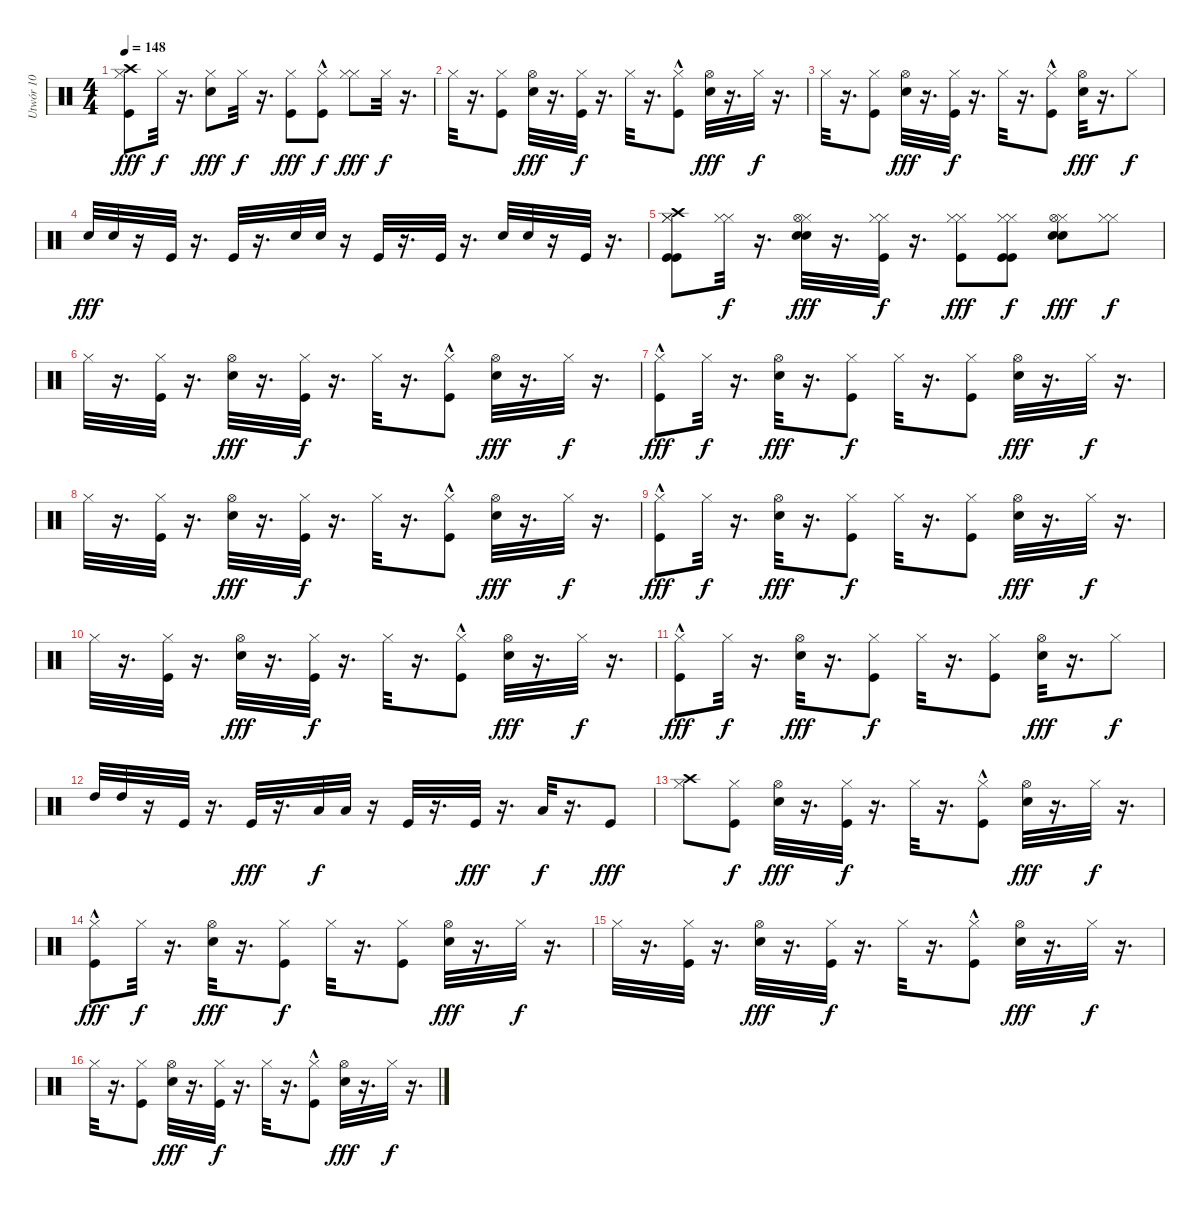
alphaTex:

\track ("Utwór 10" "Utwór 10") {instrument percussion}
\staff {score}
\articulation defaults
\ts (4 4)
\tempo 148
\clef neutral
\ks c
("Crash high (hit)" "Hi-Hat (closed)" "Kick (hit)").8{dy fff} "Hi-Hat (closed)".32{dy f} r.16{d} ("Hi-Hat (closed)" "Electric Snare (hit)").8{dy fff} "Hi-Hat (closed)".32{dy f} r.16{d} ("Hi-Hat (closed)" "Kick (hit)").8{dy fff} ("Hi-Hat (closed)" "Kick (hit)"{hac}).8{dy f} ("Hi-Hat (closed)" "Hi-Hat (closed)").8{dy fff} "Hi-Hat (closed)".32{dy f} r.16{d} |
"Hi-Hat (closed)".32 r.16{d} ("Hi-Hat (closed)" "Kick (hit)").8 ("Hi-Hat (open)" "Electric Snare (hit)").32{dy fff} r.16{d} ("Hi-Hat (closed)" "Kick (hit)").32{dy f} r.16{d} "Hi-Hat (closed)".32 r.16{d} ("Hi-Hat (closed)" "Kick (hit)"{hac}).8 ("Hi-Hat (open)" "Electric Snare (hit)").32{dy fff} r.16{d} "Hi-Hat (closed)".32{dy f} r.16{d} |
"Hi-Hat (closed)".32 r.16{d} ("Hi-Hat (closed)" "Kick (hit)").8 ("Hi-Hat (open)" "Electric Snare (hit)").32{dy fff} r.16{d} ("Hi-Hat (closed)" "Kick (hit)").32{dy f} r.16{d} "Hi-Hat (closed)".32 r.16{d} ("Hi-Hat (closed)" "Kick (hit)"{hac}).8 ("Hi-Hat (open)" "Electric Snare (hit)").32{dy fff} r.16{d} "Hi-Hat (closed)".8{dy f} |
"Electric Snare (hit)".32{dy fff} "Electric Snare (hit)".32 r.16 "Kick (hit)".32 r.16{d} "Kick (hit)".32 r.16{d} "Electric Snare (hit)".32 "Electric Snare (hit)".32 r.16 "Kick (hit)".32 r.16{d} "Kick (hit)".32 r.16{d} "Electric Snare (hit)".32 "Electric Snare (hit)".32 r.16 "Kick (hit)".32 r.16{d} |
("Crash high (hit)" "Hi-Hat (closed)" "Kick (hit)" "Hi-Hat (closed)" "Kick (hit)").8 ("Hi-Hat (closed)" "Hi-Hat (closed)").32{dy f} r.16{d} ("Hi-Hat (closed)" "Electric Snare (hit)" "Hi-Hat (open)" "Electric Snare (hit)").32{dy fff} r.16{d} ("Hi-Hat (closed)" "Hi-Hat (closed)" "Kick (hit)").32{dy f} r.16{d} ("Hi-Hat (closed)" "Hi-Hat (closed)" "Kick (hit)").8{dy fff} ("Hi-Hat (closed)" "Kick (hit)" "Hi-Hat (closed)" "Kick (hit)").8{dy f} ("Hi-Hat (closed)" "Electric Snare (hit)" "Hi-Hat (open)" "Electric Snare (hit)").8{dy fff} ("Hi-Hat (closed)" "Hi-Hat (closed)").8{dy f} |
"Hi-Hat (closed)".32 r.16{d} ("Hi-Hat (closed)" "Kick (hit)").32 r.16{d} ("Hi-Hat (open)" "Electric Snare (hit)").32{dy fff} r.16{d} ("Hi-Hat (closed)" "Kick (hit)").32{dy f} r.16{d} "Hi-Hat (closed)".32 r.16{d} ("Hi-Hat (closed)" "Kick (hit)"{hac}).8 ("Hi-Hat (open)" "Electric Snare (hit)").32{dy fff} r.16{d} "Hi-Hat (closed)".32{dy f} r.16{d} |
("Hi-Hat (closed)" "Kick (hit)"{hac}).8{dy fff} "Hi-Hat (closed)".32{dy f} r.16{d} ("Hi-Hat (open)" "Electric Snare (hit)").32{dy fff} r.16{d} ("Hi-Hat (closed)" "Kick (hit)").8{dy f} "Hi-Hat (closed)".32 r.16{d} ("Hi-Hat (closed)" "Kick (hit)").8 ("Hi-Hat (open)" "Electric Snare (hit)").32{dy fff} r.16{d} "Hi-Hat (closed)".32{dy f} r.16{d} |
"Hi-Hat (closed)".32 r.16{d} ("Hi-Hat (closed)" "Kick (hit)").32 r.16{d} ("Hi-Hat (open)" "Electric Snare (hit)").32{dy fff} r.16{d} ("Hi-Hat (closed)" "Kick (hit)").32{dy f} r.16{d} "Hi-Hat (closed)".32 r.16{d} ("Hi-Hat (closed)" "Kick (hit)"{hac}).8 ("Hi-Hat (open)" "Electric Snare (hit)").32{dy fff} r.16{d} "Hi-Hat (closed)".32{dy f} r.16{d} |
("Hi-Hat (closed)" "Kick (hit)"{hac}).8{dy fff} "Hi-Hat (closed)".32{dy f} r.16{d} ("Hi-Hat (open)" "Electric Snare (hit)").32{dy fff} r.16{d} ("Hi-Hat (closed)" "Kick (hit)").8{dy f} "Hi-Hat (closed)".32 r.16{d} ("Hi-Hat (closed)" "Kick (hit)").8 ("Hi-Hat (open)" "Electric Snare (hit)").32{dy fff} r.16{d} "Hi-Hat (closed)".32{dy f} r.16{d} |
"Hi-Hat (closed)".32 r.16{d} ("Hi-Hat (closed)" "Kick (hit)").32 r.16{d} ("Hi-Hat (open)" "Electric Snare (hit)").32{dy fff} r.16{d} ("Hi-Hat (closed)" "Kick (hit)").32{dy f} r.16{d} "Hi-Hat (closed)".32 r.16{d} ("Hi-Hat (closed)" "Kick (hit)"{hac}).8 ("Hi-Hat (open)" "Electric Snare (hit)").32{dy fff} r.16{d} "Hi-Hat (closed)".32{dy f} r.16{d} |
("Hi-Hat (closed)" "Kick (hit)"{hac}).8{dy fff} "Hi-Hat (closed)".32{dy f} r.16{d} ("Hi-Hat (open)" "Electric Snare (hit)").32{dy fff} r.16{d} ("Hi-Hat (closed)" "Kick (hit)").8{dy f} "Hi-Hat (closed)".32 r.16{d} ("Hi-Hat (closed)" "Kick (hit)").8 ("Hi-Hat (open)" "Electric Snare (hit)").32{dy fff} r.16{d} "Hi-Hat (closed)".8{dy f} |
"High Tom (hit)".32 "High Tom (hit)".32 r.16 "Kick (hit)".32 r.16{d} "Kick (hit)".32{dy fff} r.16{d} "Low Tom (hit)".32{dy f} "Low Tom (hit)".32 r.16 "Kick (hit)".32 r.16{d} "Kick (hit)".32{dy fff} r.16{d} "Low Floor Tom (hit)".32{dy f} r.16{d} "Kick (hit)".8{dy fff} |
("Crash high (hit)" "Hi-Hat (closed)").8 ("Hi-Hat (closed)" "Kick (hit)").8{dy f} ("Hi-Hat (open)" "Electric Snare (hit)").32{dy fff} r.16{d} ("Hi-Hat (closed)" "Kick (hit)").32{dy f} r.16{d} "Hi-Hat (closed)".32 r.16{d} ("Hi-Hat (closed)" "Kick (hit)"{hac}).8 ("Hi-Hat (open)" "Electric Snare (hit)").32{dy fff} r.16{d} "Hi-Hat (closed)".32{dy f} r.16{d} |
("Hi-Hat (closed)" "Kick (hit)"{hac}).8{dy fff} "Hi-Hat (closed)".32{dy f} r.16{d} ("Hi-Hat (open)" "Electric Snare (hit)").32{dy fff} r.16{d} ("Hi-Hat (closed)" "Kick (hit)").8{dy f} "Hi-Hat (closed)".32 r.16{d} ("Hi-Hat (closed)" "Kick (hit)").8 ("Hi-Hat (open)" "Electric Snare (hit)").32{dy fff} r.16{d} "Hi-Hat (closed)".32{dy f} r.16{d} |
"Hi-Hat (closed)".32 r.16{d} ("Hi-Hat (closed)" "Kick (hit)").32 r.16{d} ("Hi-Hat (open)" "Electric Snare (hit)").32{dy fff} r.16{d} ("Hi-Hat (closed)" "Kick (hit)").32{dy f} r.16{d} "Hi-Hat (closed)".32 r.16{d} ("Hi-Hat (closed)" "Kick (hit)"{hac}).8 ("Hi-Hat (open)" "Electric Snare (hit)").32{dy fff} r.16{d} "Hi-Hat (closed)".32{dy f} r.16{d} |
"Hi-Hat (closed)".32 r.16{d} ("Hi-Hat (closed)" "Kick (hit)").8 ("Hi-Hat (open)" "Electric Snare (hit)").32{dy fff} r.16{d} ("Hi-Hat (closed)" "Kick (hit)").32{dy f} r.16{d} "Hi-Hat (closed)".32 r.16{d} ("Hi-Hat (closed)" "Kick (hit)"{hac}).8 ("Hi-Hat (open)" "Electric Snare (hit)").32{dy fff} r.16{d} "Hi-Hat (closed)".32{dy f} r.16{d}
